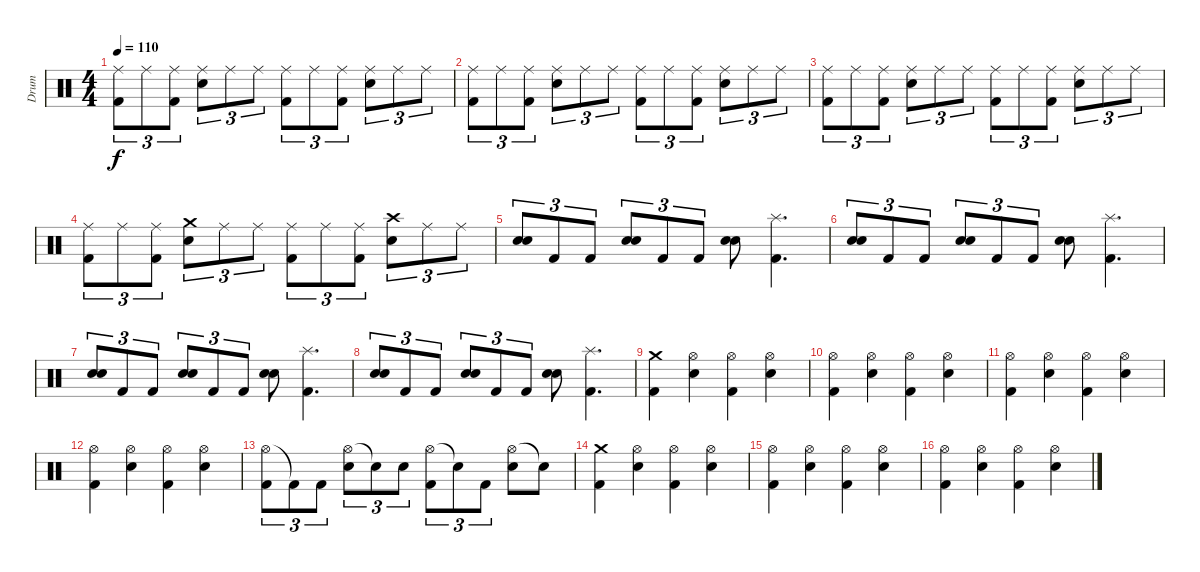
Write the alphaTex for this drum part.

\track ("Drum" "Drum") {instrument percussion}
\staff {score}
\articulation defaults
\ts (4 4)
\tempo 110
\clef neutral
\ks c
("Ride (middle)" "Kick (hit) 2").8{tu (3 2) dy f} "Ride (middle)".8{tu (3 2)} ("Ride (middle)" "Kick (hit) 2").8{tu (3 2)} ("Ride (middle)" "Electric Snare (hit)").8{tu (3 2)} "Ride (middle)".8{tu (3 2)} "Ride (middle)".8{tu (3 2)} ("Ride (middle)" "Kick (hit) 2").8{tu (3 2)} "Ride (middle)".8{tu (3 2)} ("Ride (middle)" "Kick (hit) 2").8{tu (3 2)} ("Ride (middle)" "Electric Snare (hit)").8{tu (3 2)} "Ride (middle)".8{tu (3 2)} "Ride (middle)".8{tu (3 2)} |
("Ride (middle)" "Kick (hit) 2").8{tu (3 2)} "Ride (middle)".8{tu (3 2)} ("Ride (middle)" "Kick (hit) 2").8{tu (3 2)} ("Ride (middle)" "Electric Snare (hit)").8{tu (3 2)} "Ride (middle)".8{tu (3 2)} "Ride (middle)".8{tu (3 2)} ("Ride (middle)" "Kick (hit) 2").8{tu (3 2)} "Ride (middle)".8{tu (3 2)} ("Ride (middle)" "Kick (hit) 2").8{tu (3 2)} ("Ride (middle)" "Electric Snare (hit)").8{tu (3 2)} "Ride (middle)".8{tu (3 2)} "Ride (middle)".8{tu (3 2)} |
("Ride (middle)" "Kick (hit) 2").8{tu (3 2)} "Ride (middle)".8{tu (3 2)} ("Ride (middle)" "Kick (hit) 2").8{tu (3 2)} ("Ride (middle)" "Electric Snare (hit)").8{tu (3 2)} "Ride (middle)".8{tu (3 2)} "Ride (middle)".8{tu (3 2)} ("Ride (middle)" "Kick (hit) 2").8{tu (3 2)} "Ride (middle)".8{tu (3 2)} ("Ride (middle)" "Kick (hit) 2").8{tu (3 2)} ("Ride (middle)" "Electric Snare (hit)").8{tu (3 2)} "Ride (middle)".8{tu (3 2)} "Ride (middle)".8{tu (3 2)} |
("Ride (middle)" "Kick (hit) 2").8{tu (3 2)} "Ride (middle)".8{tu (3 2)} ("Ride (middle)" "Kick (hit) 2").8{tu (3 2)} ("Crash medium (hit)" "Electric Snare (hit)").8{tu (3 2)} "Ride (middle)".8{tu (3 2)} "Ride (middle)".8{tu (3 2)} ("Ride (middle)" "Kick (hit) 2").8{tu (3 2)} "Ride (middle)".8{tu (3 2)} ("Ride (middle)" "Kick (hit) 2").8{tu (3 2)} ("Crash high (hit)" "Electric Snare (hit)").8{tu (3 2)} "Ride (middle)".8{tu (3 2)} "Ride (middle)".8{tu (3 2)} |
("Electric Snare (hit)" "Electric Snare (hit)").8{tu (3 2) bd 120} "Kick (hit) 2".8{tu (3 2)} "Kick (hit) 2".8{tu (3 2)} ("Electric Snare (hit)" "Electric Snare (hit)").8{tu (3 2) bd 120} "Kick (hit) 2".8{tu (3 2)} "Kick (hit) 2".8{tu (3 2)} ("Electric Snare (hit)" "Electric Snare (hit)").8{bd 120} ("Splash (hit)" "Kick (hit) 2").4{d} |
("Electric Snare (hit)" "Electric Snare (hit)").8{tu (3 2) bd 120} "Kick (hit) 2".8{tu (3 2)} "Kick (hit) 2".8{tu (3 2)} ("Electric Snare (hit)" "Electric Snare (hit)").8{tu (3 2) bd 120} "Kick (hit) 2".8{tu (3 2)} "Kick (hit) 2".8{tu (3 2)} ("Electric Snare (hit)" "Electric Snare (hit)").8{bd 120} ("Splash (hit)" "Kick (hit) 2").4{d} |
("Electric Snare (hit)" "Electric Snare (hit)").8{tu (3 2) bd 120} "Kick (hit) 2".8{tu (3 2)} "Kick (hit) 2".8{tu (3 2)} ("Electric Snare (hit)" "Electric Snare (hit)").8{tu (3 2) bd 120} "Kick (hit) 2".8{tu (3 2)} "Kick (hit) 2".8{tu (3 2)} ("Electric Snare (hit)" "Electric Snare (hit)").8{bd 120} ("Splash (hit)" "Kick (hit) 2").4{d} |
("Electric Snare (hit)" "Electric Snare (hit)").8{tu (3 2) bd 120} "Kick (hit) 2".8{tu (3 2)} "Kick (hit) 2".8{tu (3 2)} ("Electric Snare (hit)" "Electric Snare (hit)").8{tu (3 2) bd 120} "Kick (hit) 2".8{tu (3 2)} "Kick (hit) 2".8{tu (3 2)} ("Electric Snare (hit)" "Electric Snare (hit)").8{bd 120} ("Splash (hit)" "Kick (hit) 2").4{d} |
("Crash medium (hit)" "Kick (hit) 2").4 ("Hi-Hat (open)" "Electric Snare (hit)").4 ("Hi-Hat (open)" "Kick (hit) 2").4 ("Hi-Hat (open)" "Electric Snare (hit)").4 |
("Hi-Hat (open)" "Kick (hit) 2").4 ("Hi-Hat (open)" "Electric Snare (hit)").4 ("Hi-Hat (open)" "Kick (hit) 2").4 ("Hi-Hat (open)" "Electric Snare (hit)").4 |
("Hi-Hat (open)" "Kick (hit) 2").4 ("Hi-Hat (open)" "Electric Snare (hit)").4 ("Hi-Hat (open)" "Kick (hit) 2").4 ("Hi-Hat (open)" "Electric Snare (hit)").4 |
("Hi-Hat (open)" "Kick (hit) 2").4 ("Hi-Hat (open)" "Electric Snare (hit)").4 ("Hi-Hat (open)" "Kick (hit) 2").4 ("Hi-Hat (open)" "Electric Snare (hit)").4 |
("Hi-Hat (open)" "Kick (hit) 2").8{tu (3 2)} "Kick (hit) 2"{t}.8{tu (3 2)} "Kick (hit) 2".8{tu (3 2)} ("Hi-Hat (open)" "Electric Snare (hit)").8{tu (3 2)} "Snare (hit)"{t}.8{tu (3 2)} "Electric Snare (hit)".8{tu (3 2)} ("Hi-Hat (open)" "Kick (hit) 2").8{tu (3 2)} "Snare (hit)"{t}.8{tu (3 2)} "Kick (hit) 2".8{tu (3 2)} ("Hi-Hat (open)" "Electric Snare (hit)").8 "Snare (hit)"{t}.8 |
("Crash medium (hit)" "Kick (hit) 2").4 ("Hi-Hat (open)" "Electric Snare (hit)").4 ("Hi-Hat (open)" "Kick (hit) 2").4 ("Hi-Hat (open)" "Electric Snare (hit)").4 |
("Hi-Hat (open)" "Kick (hit) 2").4 ("Hi-Hat (open)" "Electric Snare (hit)").4 ("Hi-Hat (open)" "Kick (hit) 2").4 ("Hi-Hat (open)" "Electric Snare (hit)").4 |
("Hi-Hat (open)" "Kick (hit) 2").4 ("Hi-Hat (open)" "Electric Snare (hit)").4 ("Hi-Hat (open)" "Kick (hit) 2").4 ("Hi-Hat (open)" "Electric Snare (hit)").4
